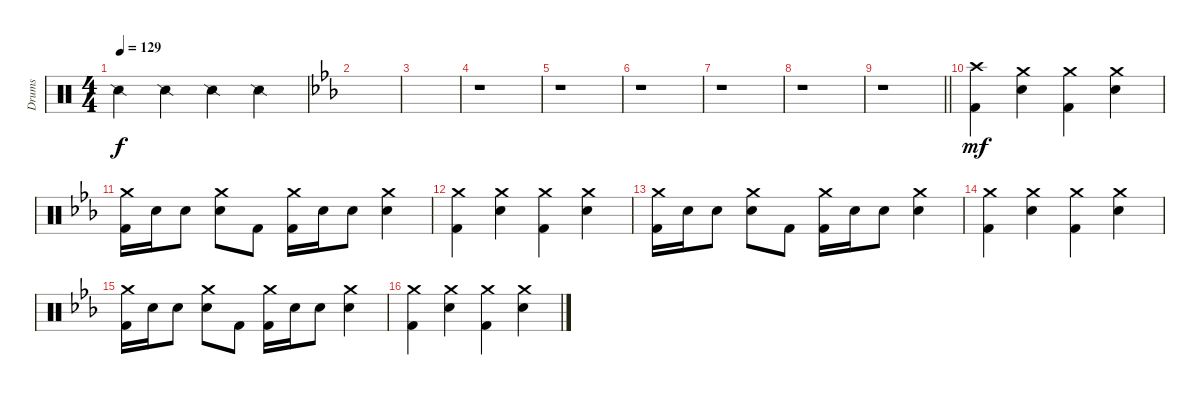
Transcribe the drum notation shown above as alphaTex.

\track ("Drums" "Drums") {instrument percussion}
\staff {score}
\articulation defaults
\ts (4 4)
\tempo 129
\clef neutral
\ks c "Snare (side stick) 2".4{dy f} "Snare (side stick) 2".4 "Snare (side stick) 2".4 "Snare (side stick) 2".4
|
\ks eb
|
|
r.1 |
r.1 |
r.1 |
r.1 |
r.1 |
\barLineRight lightlight
r.1 |
\section ("" "")
("Crash high (hit)" "Kick (hit) 2").4{dy mf} ("Crash medium (hit)" "Electric Snare (hit)").4 ("Crash medium (hit)" "Kick (hit) 2").4 ("Crash medium (hit)" "Electric Snare (hit)").4 |
("Crash medium (hit)" "Kick (hit) 2").16 "Electric Snare (hit)".16 "Electric Snare (hit)".8 ("Crash medium (hit)" "Electric Snare (hit)").8 "Kick (hit) 2".8 ("Crash medium (hit)" "Kick (hit) 2").16 "Electric Snare (hit)".16 "Electric Snare (hit)".8 ("Crash medium (hit)" "Electric Snare (hit)").4 |
("Crash medium (hit)" "Kick (hit) 2").4 ("Crash medium (hit)" "Electric Snare (hit)").4 ("Crash medium (hit)" "Kick (hit) 2").4 ("Crash medium (hit)" "Electric Snare (hit)").4 |
("Crash medium (hit)" "Kick (hit) 2").16 "Electric Snare (hit)".16 "Electric Snare (hit)".8 ("Crash medium (hit)" "Electric Snare (hit)").8 "Kick (hit) 2".8 ("Crash medium (hit)" "Kick (hit) 2").16 "Electric Snare (hit)".16 "Electric Snare (hit)".8 ("Crash medium (hit)" "Electric Snare (hit)").4 |
("Crash medium (hit)" "Kick (hit) 2").4 ("Crash medium (hit)" "Electric Snare (hit)").4 ("Crash medium (hit)" "Kick (hit) 2").4 ("Crash medium (hit)" "Electric Snare (hit)").4 |
("Crash medium (hit)" "Kick (hit) 2").16 "Electric Snare (hit)".16 "Electric Snare (hit)".8 ("Crash medium (hit)" "Electric Snare (hit)").8 "Kick (hit) 2".8 ("Crash medium (hit)" "Kick (hit) 2").16 "Electric Snare (hit)".16 "Electric Snare (hit)".8 ("Crash medium (hit)" "Electric Snare (hit)").4 |
("Crash medium (hit)" "Kick (hit) 2").4 ("Crash medium (hit)" "Electric Snare (hit)").4 ("Crash medium (hit)" "Kick (hit) 2").4 ("Crash medium (hit)" "Electric Snare (hit)").4
